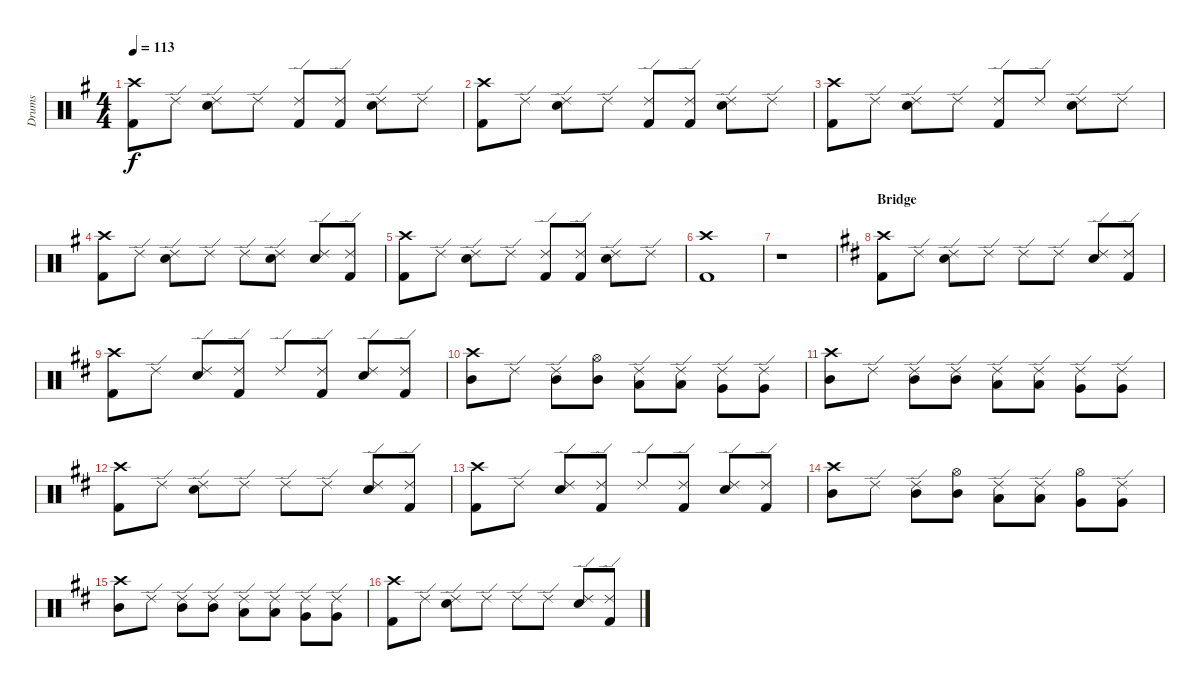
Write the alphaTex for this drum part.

\track ("Drums" "Drums") {instrument percussion}
\staff {score}
\articulation defaults
\ts (4 4)
\tempo 113
\clef neutral
\ks g
("Crash high (hit)" "Kick (hit) 2").8{dy f} "Ride (edge) 2".8 ("Ride (edge) 2" "Electric Snare (hit)").8 "Ride (edge) 2".8 ("Ride (edge) 2" "Kick (hit) 2").8 ("Ride (edge) 2" "Kick (hit) 2").8 ("Ride (edge) 2" "Electric Snare (hit)").8 "Ride (edge) 2".8 |
("Crash high (hit)" "Kick (hit) 2").8 "Ride (edge) 2".8 ("Ride (edge) 2" "Electric Snare (hit)").8 "Ride (edge) 2".8 ("Ride (edge) 2" "Kick (hit) 2").8 ("Ride (edge) 2" "Kick (hit) 2").8 ("Ride (edge) 2" "Electric Snare (hit)").8 "Ride (edge) 2".8 |
("Crash high (hit)" "Kick (hit) 2").8 "Ride (edge) 2".8 ("Ride (edge) 2" "Electric Snare (hit)").8 "Ride (edge) 2".8 ("Ride (edge) 2" "Kick (hit) 2").8 "Ride (edge) 2".8 ("Ride (edge) 2" "Electric Snare (hit)").8 "Ride (edge) 2".8 |
("Crash high (hit)" "Kick (hit) 2").8 "Ride (edge) 2".8 ("Ride (edge) 2" "Electric Snare (hit)").8 "Ride (edge) 2".8 "Ride (edge) 2".8 ("Ride (edge) 2" "Electric Snare (hit)").8 ("Ride (edge) 2" "Electric Snare (hit)").8 ("Ride (edge) 2" "Kick (hit) 2").8 |
("Crash high (hit)" "Kick (hit) 2").8 "Ride (edge) 2".8 ("Ride (edge) 2" "Electric Snare (hit)").8 "Ride (edge) 2".8 ("Ride (edge) 2" "Kick (hit) 2").8 ("Ride (edge) 2" "Kick (hit) 2").8 ("Ride (edge) 2" "Electric Snare (hit)").8 "Ride (edge) 2".8 |
("Crash high (hit)" "Kick (hit) 2").1 |
r.1 |
\section ("" "Bridge")
\ks d
("Crash high (hit)" "Kick (hit) 2").8 "Ride (edge) 2".8 ("Ride (edge) 2" "Electric Snare (hit)").8 "Ride (edge) 2".8 "Ride (edge) 2".8 "Ride (edge) 2".8 ("Ride (edge) 2" "Electric Snare (hit)").8 ("Ride (edge) 2" "Kick (hit) 2").8 |
("Crash high (hit)" "Kick (hit) 2").8 "Ride (edge) 2".8 ("Ride (edge) 2" "Electric Snare (hit)").8 ("Ride (edge) 2" "Kick (hit) 2").8 "Ride (edge) 2".8 ("Ride (edge) 2" "Kick (hit) 2").8 ("Ride (edge) 2" "Electric Snare (hit)").8 ("Ride (edge) 2" "Kick (hit) 2").8 |
("Crash high (hit)" "Mid Tom (hit)").8 "Ride (edge) 2".8 ("Ride (edge) 2" "Mid Tom (hit)").8 ("Hi-Hat (open)" "Mid Tom (hit)").8 ("Ride (edge) 2" "Low Tom (hit)").8 ("Ride (edge) 2" "Low Tom (hit)").8 ("Ride (edge) 2" "Very Low Tom (hit)").8 ("Ride (edge) 2" "Very Low Tom (hit)").8 |
("Crash high (hit)" "Mid Tom (hit)").8 "Ride (edge) 2".8 ("Ride (edge) 2" "Mid Tom (hit)").8 ("Ride (edge) 2" "Mid Tom (hit)").8 ("Ride (edge) 2" "Low Tom (hit)").8 ("Ride (edge) 2" "Low Tom (hit)").8 ("Ride (edge) 2" "Very Low Tom (hit)").8 ("Ride (edge) 2" "Very Low Tom (hit)").8 |
("Crash high (hit)" "Kick (hit) 2").8 "Ride (edge) 2".8 ("Ride (edge) 2" "Electric Snare (hit)").8 "Ride (edge) 2".8 "Ride (edge) 2".8 "Ride (edge) 2".8 ("Ride (edge) 2" "Electric Snare (hit)").8 ("Ride (edge) 2" "Kick (hit) 2").8 |
("Crash high (hit)" "Kick (hit) 2").8 "Ride (edge) 2".8 ("Ride (edge) 2" "Electric Snare (hit)").8 ("Ride (edge) 2" "Kick (hit) 2").8 "Ride (edge) 2".8 ("Ride (edge) 2" "Kick (hit) 2").8 ("Ride (edge) 2" "Electric Snare (hit)").8 ("Ride (edge) 2" "Kick (hit) 2").8 |
("Crash high (hit)" "Mid Tom (hit)").8 "Ride (edge) 2".8 ("Ride (edge) 2" "Mid Tom (hit)").8 ("Hi-Hat (open)" "Mid Tom (hit)").8 ("Ride (edge) 2" "Low Tom (hit)").8 ("Ride (edge) 2" "Low Tom (hit)").8 ("Hi-Hat (open)" "Very Low Tom (hit)").8 ("Ride (edge) 2" "Very Low Tom (hit)").8 |
("Crash high (hit)" "Mid Tom (hit)").8 "Ride (edge) 2".8 ("Ride (edge) 2" "Mid Tom (hit)").8 ("Ride (edge) 2" "Mid Tom (hit)").8 ("Ride (edge) 2" "Low Tom (hit)").8 ("Ride (edge) 2" "Low Tom (hit)").8 ("Ride (edge) 2" "Very Low Tom (hit)").8 ("Ride (edge) 2" "Very Low Tom (hit)").8 |
("Crash high (hit)" "Kick (hit) 2").8 "Ride (edge) 2".8 ("Ride (edge) 2" "Electric Snare (hit)").8 "Ride (edge) 2".8 "Ride (edge) 2".8 "Ride (edge) 2".8 ("Ride (edge) 2" "Electric Snare (hit)").8 ("Ride (edge) 2" "Kick (hit) 2").8
